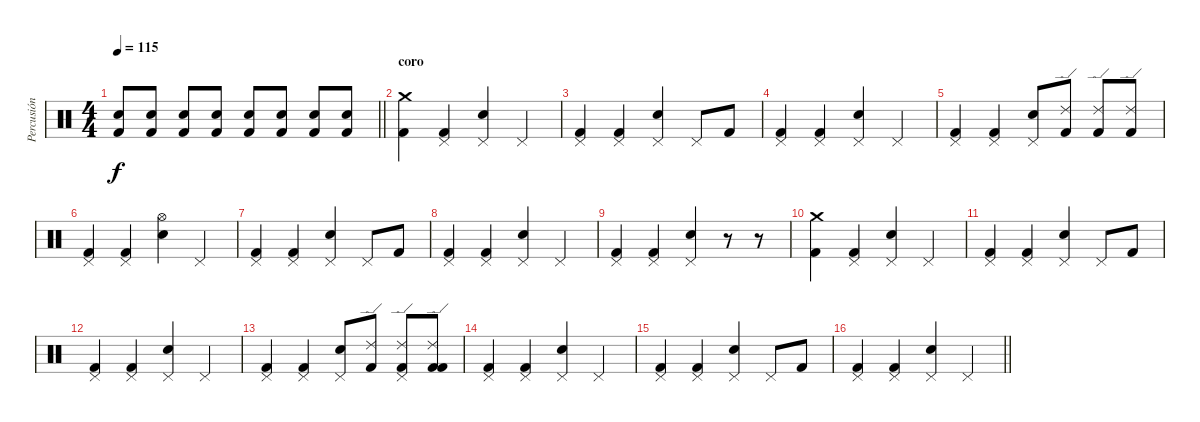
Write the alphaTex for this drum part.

\track ("Percusión" "Percusión") {instrument percussion}
\staff {score}
\articulation defaults
\ts (4 4)
\tempo 115
\clef neutral
\barLineRight lightlight
\ks c
("Kick (hit) 2" "Snare (hit) 2").8{dy f} ("Kick (hit) 2" "Snare (hit) 2").8 ("Kick (hit) 2" "Snare (hit) 2").8 ("Kick (hit) 2" "Snare (hit) 2").8 ("Kick (hit) 2" "Snare (hit) 2").8 ("Kick (hit) 2" "Snare (hit) 2").8 ("Kick (hit) 2" "Snare (hit) 2").8 ("Kick (hit) 2" "Snare (hit) 2").8 |
\section ("" "coro")
("Kick (hit) 2" "Crash medium (hit)").4 ("Kick (hit) 2" "Pedal Hi-Hat (hit)").4 ("Electric Snare (hit)" "Pedal Hi-Hat (hit)").4 "Pedal Hi-Hat (hit)".4 |
("Kick (hit) 2" "Pedal Hi-Hat (hit)").4 ("Kick (hit) 2" "Pedal Hi-Hat (hit)").4 ("Electric Snare (hit)" "Pedal Hi-Hat (hit)").4 "Pedal Hi-Hat (hit)".8 "Kick (hit) 2".8 |
("Kick (hit) 2" "Pedal Hi-Hat (hit)").4 ("Kick (hit) 2" "Pedal Hi-Hat (hit)").4 ("Electric Snare (hit)" "Pedal Hi-Hat (hit)").4 "Pedal Hi-Hat (hit)".4 |
("Kick (hit) 2" "Pedal Hi-Hat (hit)").4 ("Kick (hit) 2" "Pedal Hi-Hat (hit)").4 ("Electric Snare (hit)" "Pedal Hi-Hat (hit)").8 ("Ride (edge) 2" "Kick (hit) 2").8 ("Ride (edge) 2" "Kick (hit) 2").8 ("Kick (hit) 2" "Ride (edge) 2").8 |
("Kick (hit) 2" "Pedal Hi-Hat (hit)").4 ("Kick (hit) 2" "Pedal Hi-Hat (hit)").4 ("Electric Snare (hit)" "Hi-Hat (open)").4 "Pedal Hi-Hat (hit)".4 |
("Kick (hit) 2" "Pedal Hi-Hat (hit)").4 ("Kick (hit) 2" "Pedal Hi-Hat (hit)").4 ("Electric Snare (hit)" "Pedal Hi-Hat (hit)").4 "Pedal Hi-Hat (hit)".8 "Kick (hit) 2".8 |
("Kick (hit) 2" "Pedal Hi-Hat (hit)").4 ("Kick (hit) 2" "Pedal Hi-Hat (hit)").4 ("Electric Snare (hit)" "Pedal Hi-Hat (hit)").4 "Pedal Hi-Hat (hit)".4 |
("Kick (hit) 2" "Pedal Hi-Hat (hit)").4 ("Kick (hit) 2" "Pedal Hi-Hat (hit)").4 ("Electric Snare (hit)" "Pedal Hi-Hat (hit)").4 r.8 r.8 |
("Kick (hit) 2" "Crash medium (hit)").4 ("Kick (hit) 2" "Pedal Hi-Hat (hit)").4 ("Electric Snare (hit)" "Pedal Hi-Hat (hit)").4 "Pedal Hi-Hat (hit)".4 |
("Kick (hit) 2" "Pedal Hi-Hat (hit)").4 ("Kick (hit) 2" "Pedal Hi-Hat (hit)").4 ("Electric Snare (hit)" "Pedal Hi-Hat (hit)").4 "Pedal Hi-Hat (hit)".8 "Kick (hit) 2".8 |
("Kick (hit) 2" "Pedal Hi-Hat (hit)").4 ("Kick (hit) 2" "Pedal Hi-Hat (hit)").4 ("Electric Snare (hit)" "Pedal Hi-Hat (hit)").4 "Pedal Hi-Hat (hit)".4 |
("Kick (hit) 2" "Pedal Hi-Hat (hit)").4 ("Kick (hit) 2" "Pedal Hi-Hat (hit)").4 ("Electric Snare (hit)" "Pedal Hi-Hat (hit)").8 ("Kick (hit) 2" "Ride (edge) 2").8 ("Pedal Hi-Hat (hit)" "Kick (hit) 2" "Ride (edge) 2").8 ("Kick (hit) 2" "Kick (hit) 2" "Ride (edge) 2").8 |
("Kick (hit) 2" "Pedal Hi-Hat (hit)").4 ("Kick (hit) 2" "Pedal Hi-Hat (hit)").4 ("Electric Snare (hit)" "Pedal Hi-Hat (hit)").4 "Pedal Hi-Hat (hit)".4 |
("Kick (hit) 2" "Pedal Hi-Hat (hit)").4 ("Kick (hit) 2" "Pedal Hi-Hat (hit)").4 ("Electric Snare (hit)" "Pedal Hi-Hat (hit)").4 "Pedal Hi-Hat (hit)".8 "Kick (hit) 2".8 |
\barLineRight lightlight
("Kick (hit) 2" "Pedal Hi-Hat (hit)").4 ("Kick (hit) 2" "Pedal Hi-Hat (hit)").4 ("Electric Snare (hit)" "Pedal Hi-Hat (hit)").4 "Pedal Hi-Hat (hit)".4
